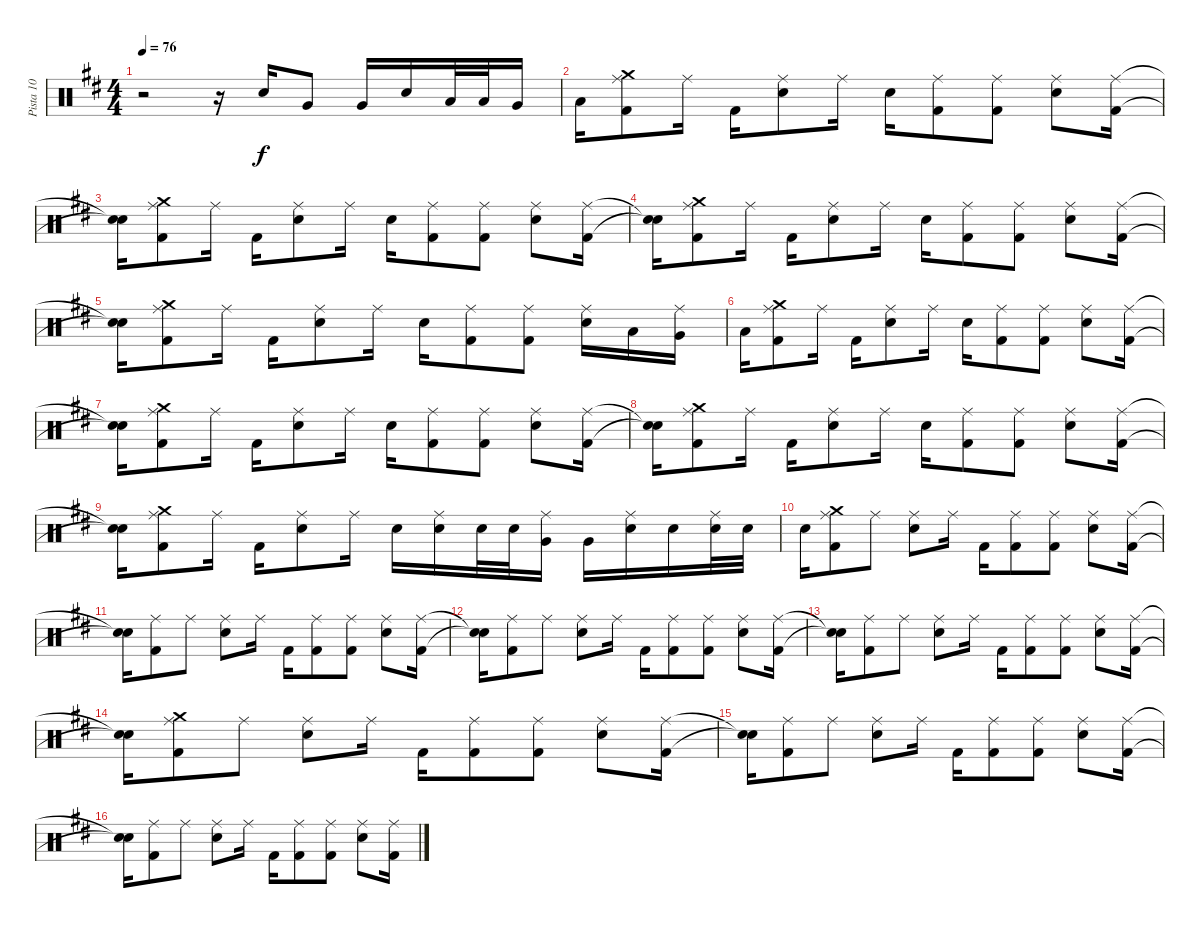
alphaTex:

\track ("Pista 10" "Pista 10") {instrument percussion}
\staff {score}
\articulation defaults
\ts (4 4)
\tempo 76
\clef neutral
\ks d
r.2{dy f} r.16 "Snare (hit) 2".16{balance 8} "Very Low Tom (hit)".8 "Very Low Tom (hit)".16 "Snare (hit) 2".16 "Low Tom (hit)".32 "Low Floor Tom (hit)".32 "Very Low Tom (hit)".16 |
"Low Tom (hit)".16 ("Kick (hit) 2" "Crash medium (hit)" "Ride (middle)").8 "Ride (middle)".16 "Kick (hit) 2".16 ("Snare (hit) 2" "Ride (middle)").8 "Ride (middle)".16 "Snare (hit) 2".16 ("Kick (hit) 2" "Ride (middle)").8 ("Kick (hit) 2" "Ride (middle)").8 ("Snare (hit) 2" "Ride (middle)").8 ("Kick (hit) 2" "Ride (middle)").16 |
("Snare (hit)"{t} "Snare (hit)"{t}).16 ("Kick (hit) 2" "Crash medium (hit)" "Ride (middle)").8 "Ride (middle)".16 "Kick (hit) 2".16 ("Snare (hit) 2" "Ride (middle)").8 "Ride (middle)".16 "Snare (hit) 2".16 ("Kick (hit) 2" "Ride (middle)").8 ("Kick (hit) 2" "Ride (middle)").8 ("Snare (hit) 2" "Ride (middle)").8 ("Kick (hit) 2" "Ride (middle)").16 |
("Snare (hit)"{t} "Snare (hit)"{t}).16 ("Kick (hit) 2" "Crash medium (hit)" "Ride (middle)").8 "Ride (middle)".16 "Kick (hit) 2".16 ("Snare (hit) 2" "Ride (middle)").8 "Ride (middle)".16 "Snare (hit) 2".16 ("Kick (hit) 2" "Ride (middle)").8 ("Kick (hit) 2" "Ride (middle)").8 ("Snare (hit) 2" "Ride (middle)").8 ("Kick (hit) 2" "Ride (middle)").16 |
("Snare (hit)"{t} "Snare (hit)"{t}).16 ("Kick (hit) 2" "Crash medium (hit)" "Ride (middle)").8 "Ride (middle)".16 "Kick (hit) 2".16 ("Snare (hit) 2" "Ride (middle)").8 "Ride (middle)".16 "Snare (hit) 2".16 ("Kick (hit) 2" "Ride (middle)").8 ("Kick (hit) 2" "Ride (middle)").8 ("Snare (hit) 2" "Ride (middle)").16 "Low Tom (hit)".16 ("Very Low Tom (hit)" "Ride (middle)").16 |
"Low Floor Tom (hit)".16 ("Kick (hit) 2" "Crash medium (hit)" "Ride (middle)").8 "Ride (middle)".16 "Kick (hit) 2".16 ("Snare (hit) 2" "Ride (middle)").8 "Ride (middle)".16 "Snare (hit) 2".16 ("Kick (hit) 2" "Ride (middle)").8 ("Kick (hit) 2" "Ride (middle)").8 ("Snare (hit) 2" "Ride (middle)").8 ("Kick (hit) 2" "Ride (middle)").16 |
("Snare (hit)"{t} "Snare (hit)"{t}).16 ("Kick (hit) 2" "Crash medium (hit)" "Ride (middle)").8 "Ride (middle)".16 "Kick (hit) 2".16 ("Snare (hit) 2" "Ride (middle)").8 "Ride (middle)".16 "Snare (hit) 2".16 ("Kick (hit) 2" "Ride (middle)").8 ("Kick (hit) 2" "Ride (middle)").8 ("Snare (hit) 2" "Ride (middle)").8 ("Kick (hit) 2" "Ride (middle)").16 |
("Snare (hit)"{t} "Snare (hit)"{t}).16 ("Kick (hit) 2" "Crash medium (hit)" "Ride (middle)").8 "Ride (middle)".16 "Kick (hit) 2".16 ("Snare (hit) 2" "Ride (middle)").8 "Ride (middle)".16 "Snare (hit) 2".16 ("Kick (hit) 2" "Ride (middle)").8 ("Kick (hit) 2" "Ride (middle)").8 ("Snare (hit) 2" "Ride (middle)").8 ("Kick (hit) 2" "Ride (middle)").16 |
("Snare (hit)"{t} "Snare (hit)"{t}).16 ("Kick (hit) 2" "Crash medium (hit)" "Ride (middle)").8 "Ride (middle)".16 "Kick (hit) 2".16 ("Snare (hit) 2" "Ride (middle)").8 "Ride (middle)".16 "Snare (hit) 2".16 ("Snare (hit) 2" "Ride (middle)").16 "Snare (hit) 2".32 "Snare (hit) 2".32 ("Very Low Tom (hit)" "Ride (middle)").16 "Very Low Tom (hit)".16 ("Snare (hit) 2" "Ride (middle)").16 "Snare (hit) 2".16 ("Snare (hit) 2" "Ride (middle)").32 "Snare (hit) 2".32 |
"Snare (hit) 2".16 ("Kick (hit) 2" "Crash medium (hit)" "Ride (middle)").8 "Ride (middle)".8 ("Snare (hit) 2" "Ride (middle)").8 "Ride (middle)".16 "Kick (hit) 2".16 ("Kick (hit) 2" "Ride (middle)").8 ("Kick (hit) 2" "Ride (middle)").8 ("Snare (hit) 2" "Ride (middle)").8 ("Kick (hit) 2" "Ride (middle)").16 |
("Snare (hit)"{t} "Snare (hit)"{t}).16 ("Kick (hit) 2" "Ride (middle)").8 "Ride (middle)".8 ("Snare (hit) 2" "Ride (middle)").8 "Ride (middle)".16 "Kick (hit) 2".16 ("Kick (hit) 2" "Ride (middle)").8 ("Kick (hit) 2" "Ride (middle)").8 ("Snare (hit) 2" "Ride (middle)").8 ("Kick (hit) 2" "Ride (middle)").16 |
("Snare (hit)"{t} "Snare (hit)"{t}).16 ("Kick (hit) 2" "Ride (middle)").8 "Ride (middle)".8 ("Snare (hit) 2" "Ride (middle)").8 "Ride (middle)".16 "Kick (hit) 2".16 ("Kick (hit) 2" "Ride (middle)").8 ("Kick (hit) 2" "Ride (middle)").8 ("Snare (hit) 2" "Ride (middle)").8 ("Kick (hit) 2" "Ride (middle)").16 |
("Snare (hit)"{t} "Snare (hit)"{t}).16 ("Kick (hit) 2" "Ride (middle)").8 "Ride (middle)".8 ("Snare (hit) 2" "Ride (middle)").8 "Ride (middle)".16 "Kick (hit) 2".16 ("Kick (hit) 2" "Ride (middle)").8 ("Kick (hit) 2" "Ride (middle)").8 ("Snare (hit) 2" "Ride (middle)").8 ("Kick (hit) 2" "Ride (middle)").16 |
("Snare (hit)"{t} "Snare (hit)"{t}).16 ("Kick (hit) 2" "Crash medium (hit)" "Ride (middle)").8 "Ride (middle)".8 ("Snare (hit) 2" "Ride (middle)").8 "Ride (middle)".16 "Kick (hit) 2".16 ("Kick (hit) 2" "Ride (middle)").8 ("Kick (hit) 2" "Ride (middle)").8 ("Snare (hit) 2" "Ride (middle)").8 ("Kick (hit) 2" "Ride (middle)").16 |
("Snare (hit)"{t} "Snare (hit)"{t}).16 ("Kick (hit) 2" "Ride (middle)").8 "Ride (middle)".8 ("Snare (hit) 2" "Ride (middle)").8 "Ride (middle)".16 "Kick (hit) 2".16 ("Kick (hit) 2" "Ride (middle)").8 ("Kick (hit) 2" "Ride (middle)").8 ("Snare (hit) 2" "Ride (middle)").8 ("Kick (hit) 2" "Ride (middle)").16 |
("Snare (hit)"{t} "Snare (hit)"{t}).16 ("Kick (hit) 2" "Ride (middle)").8 "Ride (middle)".8 ("Snare (hit) 2" "Ride (middle)").8 "Ride (middle)".16 "Kick (hit) 2".16 ("Kick (hit) 2" "Ride (middle)").8 ("Kick (hit) 2" "Ride (middle)").8 ("Snare (hit) 2" "Ride (middle)").8 ("Kick (hit) 2" "Ride (middle)").16
